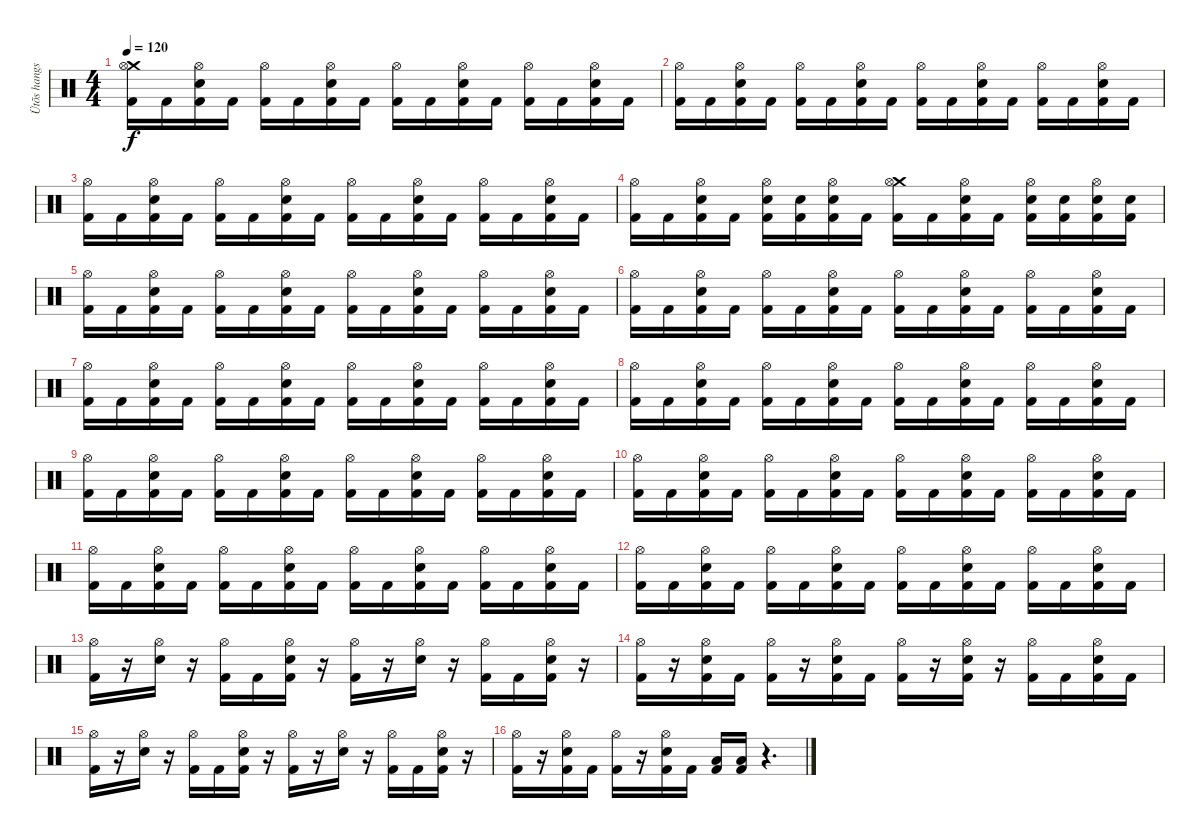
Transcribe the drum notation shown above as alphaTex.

\track ("Ütõs hangszer" "Ütõs hangs") {instrument percussion}
\staff {score}
\articulation defaults
\ts (4 4)
\tempo 120
\clef neutral
\ks c
("Crash medium (hit)" "Hi-Hat (open)" "Kick (hit) 2").16{dy f} "Kick (hit) 2".16 ("Hi-Hat (open)" "Electric Snare (hit)" "Kick (hit) 2").16 "Kick (hit) 2".16 ("Hi-Hat (open)" "Kick (hit) 2").16 "Kick (hit) 2".16 ("Hi-Hat (open)" "Electric Snare (hit)" "Kick (hit) 2").16 "Kick (hit) 2".16 ("Hi-Hat (open)" "Kick (hit) 2").16 "Kick (hit) 2".16 ("Hi-Hat (open)" "Electric Snare (hit)" "Kick (hit) 2").16 "Kick (hit) 2".16 ("Hi-Hat (open)" "Kick (hit) 2").16 "Kick (hit) 2".16 ("Hi-Hat (open)" "Electric Snare (hit)" "Kick (hit) 2").16 "Kick (hit) 2".16 |
("Hi-Hat (open)" "Kick (hit) 2").16 "Kick (hit) 2".16 ("Hi-Hat (open)" "Electric Snare (hit)" "Kick (hit) 2").16 "Kick (hit) 2".16 ("Hi-Hat (open)" "Kick (hit) 2").16 "Kick (hit) 2".16 ("Hi-Hat (open)" "Electric Snare (hit)" "Kick (hit) 2").16 "Kick (hit) 2".16 ("Hi-Hat (open)" "Kick (hit) 2").16 "Kick (hit) 2".16 ("Hi-Hat (open)" "Electric Snare (hit)" "Kick (hit) 2").16 "Kick (hit) 2".16 ("Hi-Hat (open)" "Kick (hit) 2").16 "Kick (hit) 2".16 ("Hi-Hat (open)" "Electric Snare (hit)" "Kick (hit) 2").16 "Kick (hit) 2".16 |
("Hi-Hat (open)" "Kick (hit) 2").16 "Kick (hit) 2".16 ("Hi-Hat (open)" "Electric Snare (hit)" "Kick (hit) 2").16 "Kick (hit) 2".16 ("Hi-Hat (open)" "Kick (hit) 2").16 "Kick (hit) 2".16 ("Hi-Hat (open)" "Electric Snare (hit)" "Kick (hit) 2").16 "Kick (hit) 2".16 ("Hi-Hat (open)" "Kick (hit) 2").16 "Kick (hit) 2".16 ("Hi-Hat (open)" "Electric Snare (hit)" "Kick (hit) 2").16 "Kick (hit) 2".16 ("Hi-Hat (open)" "Kick (hit) 2").16 "Kick (hit) 2".16 ("Hi-Hat (open)" "Electric Snare (hit)" "Kick (hit) 2").16 "Kick (hit) 2".16 |
("Hi-Hat (open)" "Kick (hit) 2").16 "Kick (hit) 2".16 ("Hi-Hat (open)" "Electric Snare (hit)" "Kick (hit) 2").16 "Kick (hit) 2".16 ("Hi-Hat (open)" "Electric Snare (hit)" "Kick (hit) 2").16 ("Electric Snare (hit)" "Kick (hit) 2").16 ("Hi-Hat (open)" "Electric Snare (hit)" "Kick (hit) 2").16 "Kick (hit) 2".16 ("Crash medium (hit)" "Hi-Hat (open)" "Kick (hit) 2").16 "Kick (hit) 2".16 ("Hi-Hat (open)" "Electric Snare (hit)" "Kick (hit) 2").16 "Kick (hit) 2".16 ("Hi-Hat (open)" "Electric Snare (hit)" "Kick (hit) 2").16 ("Electric Snare (hit)" "Kick (hit) 2").16 ("Hi-Hat (open)" "Electric Snare (hit)" "Kick (hit) 2").16 ("Electric Snare (hit)" "Kick (hit) 2").16 |
("Hi-Hat (open)" "Kick (hit) 2").16 "Kick (hit) 2".16 ("Hi-Hat (open)" "Electric Snare (hit)" "Kick (hit) 2").16 "Kick (hit) 2".16 ("Hi-Hat (open)" "Kick (hit) 2").16 "Kick (hit) 2".16 ("Hi-Hat (open)" "Electric Snare (hit)" "Kick (hit) 2").16 "Kick (hit) 2".16 ("Hi-Hat (open)" "Kick (hit) 2").16 "Kick (hit) 2".16 ("Hi-Hat (open)" "Electric Snare (hit)" "Kick (hit) 2").16 "Kick (hit) 2".16 ("Hi-Hat (open)" "Kick (hit) 2").16 "Kick (hit) 2".16 ("Hi-Hat (open)" "Electric Snare (hit)" "Kick (hit) 2").16 "Kick (hit) 2".16 |
("Hi-Hat (open)" "Kick (hit) 2").16 "Kick (hit) 2".16 ("Hi-Hat (open)" "Electric Snare (hit)" "Kick (hit) 2").16 "Kick (hit) 2".16 ("Hi-Hat (open)" "Kick (hit) 2").16 "Kick (hit) 2".16 ("Hi-Hat (open)" "Electric Snare (hit)" "Kick (hit) 2").16 "Kick (hit) 2".16 ("Hi-Hat (open)" "Kick (hit) 2").16 "Kick (hit) 2".16 ("Hi-Hat (open)" "Electric Snare (hit)" "Kick (hit) 2").16 "Kick (hit) 2".16 ("Hi-Hat (open)" "Kick (hit) 2").16 "Kick (hit) 2".16 ("Hi-Hat (open)" "Electric Snare (hit)" "Kick (hit) 2").16 "Kick (hit) 2".16 |
("Hi-Hat (open)" "Kick (hit) 2").16 "Kick (hit) 2".16 ("Hi-Hat (open)" "Electric Snare (hit)" "Kick (hit) 2").16 "Kick (hit) 2".16 ("Hi-Hat (open)" "Kick (hit) 2").16 "Kick (hit) 2".16 ("Hi-Hat (open)" "Electric Snare (hit)" "Kick (hit) 2").16 "Kick (hit) 2".16 ("Hi-Hat (open)" "Kick (hit) 2").16 "Kick (hit) 2".16 ("Hi-Hat (open)" "Electric Snare (hit)" "Kick (hit) 2").16 "Kick (hit) 2".16 ("Hi-Hat (open)" "Kick (hit) 2").16 "Kick (hit) 2".16 ("Hi-Hat (open)" "Electric Snare (hit)" "Kick (hit) 2").16 "Kick (hit) 2".16 |
("Hi-Hat (open)" "Kick (hit) 2").16 "Kick (hit) 2".16 ("Hi-Hat (open)" "Electric Snare (hit)" "Kick (hit) 2").16 "Kick (hit) 2".16 ("Hi-Hat (open)" "Kick (hit) 2").16 "Kick (hit) 2".16 ("Hi-Hat (open)" "Electric Snare (hit)" "Kick (hit) 2").16 "Kick (hit) 2".16 ("Hi-Hat (open)" "Kick (hit) 2").16 "Kick (hit) 2".16 ("Hi-Hat (open)" "Electric Snare (hit)" "Kick (hit) 2").16 "Kick (hit) 2".16 ("Hi-Hat (open)" "Kick (hit) 2").16 "Kick (hit) 2".16 ("Hi-Hat (open)" "Electric Snare (hit)" "Kick (hit) 2").16 "Kick (hit) 2".16 |
("Hi-Hat (open)" "Kick (hit) 2").16 "Kick (hit) 2".16 ("Hi-Hat (open)" "Electric Snare (hit)" "Kick (hit) 2").16 "Kick (hit) 2".16 ("Hi-Hat (open)" "Kick (hit) 2").16 "Kick (hit) 2".16 ("Hi-Hat (open)" "Electric Snare (hit)" "Kick (hit) 2").16 "Kick (hit) 2".16 ("Hi-Hat (open)" "Kick (hit) 2").16 "Kick (hit) 2".16 ("Hi-Hat (open)" "Electric Snare (hit)" "Kick (hit) 2").16 "Kick (hit) 2".16 ("Hi-Hat (open)" "Kick (hit) 2").16 "Kick (hit) 2".16 ("Hi-Hat (open)" "Electric Snare (hit)" "Kick (hit) 2").16 "Kick (hit) 2".16 |
("Hi-Hat (open)" "Kick (hit) 2").16 "Kick (hit) 2".16 ("Hi-Hat (open)" "Electric Snare (hit)" "Kick (hit) 2").16 "Kick (hit) 2".16 ("Hi-Hat (open)" "Kick (hit) 2").16 "Kick (hit) 2".16 ("Hi-Hat (open)" "Electric Snare (hit)" "Kick (hit) 2").16 "Kick (hit) 2".16 ("Hi-Hat (open)" "Kick (hit) 2").16 "Kick (hit) 2".16 ("Hi-Hat (open)" "Electric Snare (hit)" "Kick (hit) 2").16 "Kick (hit) 2".16 ("Hi-Hat (open)" "Kick (hit) 2").16 "Kick (hit) 2".16 ("Hi-Hat (open)" "Electric Snare (hit)" "Kick (hit) 2").16 "Kick (hit) 2".16 |
("Hi-Hat (open)" "Kick (hit) 2").16 "Kick (hit) 2".16 ("Hi-Hat (open)" "Electric Snare (hit)" "Kick (hit) 2").16 "Kick (hit) 2".16 ("Hi-Hat (open)" "Kick (hit) 2").16 "Kick (hit) 2".16 ("Hi-Hat (open)" "Electric Snare (hit)" "Kick (hit) 2").16 "Kick (hit) 2".16 ("Hi-Hat (open)" "Kick (hit) 2").16 "Kick (hit) 2".16 ("Hi-Hat (open)" "Electric Snare (hit)" "Kick (hit) 2").16 "Kick (hit) 2".16 ("Hi-Hat (open)" "Kick (hit) 2").16 "Kick (hit) 2".16 ("Hi-Hat (open)" "Electric Snare (hit)" "Kick (hit) 2").16 "Kick (hit) 2".16 |
("Hi-Hat (open)" "Kick (hit) 2").16 "Kick (hit) 2".16 ("Hi-Hat (open)" "Electric Snare (hit)" "Kick (hit) 2").16 "Kick (hit) 2".16 ("Hi-Hat (open)" "Kick (hit) 2").16 "Kick (hit) 2".16 ("Hi-Hat (open)" "Electric Snare (hit)" "Kick (hit) 2").16 "Kick (hit) 2".16 ("Hi-Hat (open)" "Kick (hit) 2").16 "Kick (hit) 2".16 ("Hi-Hat (open)" "Electric Snare (hit)" "Kick (hit) 2").16 "Kick (hit) 2".16 ("Hi-Hat (open)" "Kick (hit) 2").16 "Kick (hit) 2".16 ("Hi-Hat (open)" "Electric Snare (hit)" "Kick (hit) 2").16 "Kick (hit) 2".16 |
("Hi-Hat (open)" "Kick (hit) 2").16 r.16 ("Hi-Hat (open)" "Electric Snare (hit)").16 r.16 ("Hi-Hat (open)" "Kick (hit) 2").16 "Kick (hit) 2".16 ("Hi-Hat (open)" "Electric Snare (hit)" "Kick (hit) 2").16 r.16 ("Hi-Hat (open)" "Kick (hit) 2").16 r.16 ("Hi-Hat (open)" "Electric Snare (hit)").16 r.16 ("Hi-Hat (open)" "Kick (hit) 2").16 "Kick (hit) 2".16 ("Hi-Hat (open)" "Electric Snare (hit)" "Kick (hit) 2").16 r.16 |
("Hi-Hat (open)" "Kick (hit) 2").16 r.16 ("Hi-Hat (open)" "Electric Snare (hit)" "Kick (hit) 2").16 "Kick (hit) 2".16 ("Hi-Hat (open)" "Kick (hit) 2").16 r.16 ("Hi-Hat (open)" "Electric Snare (hit)" "Kick (hit) 2").16 "Kick (hit) 2".16 ("Hi-Hat (open)" "Kick (hit) 2").16 r.16 ("Hi-Hat (open)" "Electric Snare (hit)" "Kick (hit) 2").16 r.16 ("Hi-Hat (open)" "Kick (hit) 2").16 "Kick (hit) 2".16 ("Hi-Hat (open)" "Electric Snare (hit)" "Kick (hit) 2").16 "Kick (hit) 2".16 |
("Hi-Hat (open)" "Kick (hit) 2").16 r.16 ("Hi-Hat (open)" "Electric Snare (hit)").16 r.16 ("Hi-Hat (open)" "Kick (hit) 2").16 "Kick (hit) 2".16 ("Hi-Hat (open)" "Electric Snare (hit)" "Kick (hit) 2").16 r.16 ("Hi-Hat (open)" "Kick (hit) 2").16 r.16 ("Hi-Hat (open)" "Electric Snare (hit)").16 r.16 ("Hi-Hat (open)" "Kick (hit) 2").16 "Kick (hit) 2".16 ("Hi-Hat (open)" "Electric Snare (hit)" "Kick (hit) 2").16 r.16 |
("Hi-Hat (open)" "Kick (hit) 2").16 r.16 ("Hi-Hat (open)" "Electric Snare (hit)" "Kick (hit) 2").16 "Kick (hit) 2".16 ("Hi-Hat (open)" "Kick (hit) 2").16 r.16 ("Hi-Hat (open)" "Electric Snare (hit)" "Kick (hit) 2").16 "Kick (hit) 2".16 ("Low Floor Tom (hit)" "Kick (hit) 2").16 ("Low Floor Tom (hit)" "Kick (hit) 2").16 r.4{d}
